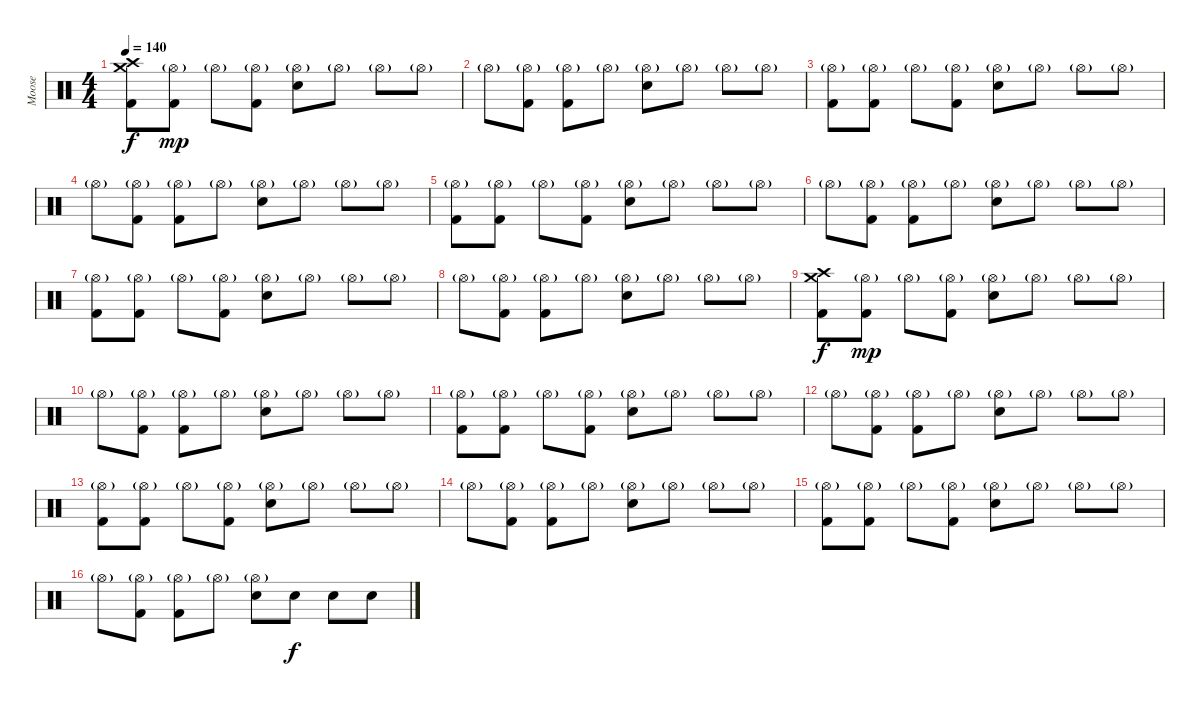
\track ("Moose" "Moose") {instrument percussion}
\staff {score}
\articulation defaults
\ts (4 4)
\tempo 140
\clef neutral
\ks c
("Crash high (hit)" "Crash medium (hit)" "Kick (hit) 2").8{dy f} ("Hi-Hat (open)"{g} "Kick (hit) 2").8{dy mp} "Hi-Hat (open)"{g}.8 ("Hi-Hat (open)"{g} "Kick (hit) 2").8 ("Hi-Hat (open)"{g} "Snare (hit) 2").8 "Hi-Hat (open)"{g}.8 "Hi-Hat (open)"{g}.8 "Hi-Hat (open)"{g}.8 |
"Hi-Hat (open)"{g}.8 ("Hi-Hat (open)"{g} "Kick (hit) 2").8 ("Hi-Hat (open)"{g} "Kick (hit) 2").8 "Hi-Hat (open)"{g}.8 ("Hi-Hat (open)"{g} "Snare (hit) 2").8 "Hi-Hat (open)"{g}.8 "Hi-Hat (open)"{g}.8 "Hi-Hat (open)"{g}.8 |
("Hi-Hat (open)"{g} "Kick (hit) 2").8 ("Hi-Hat (open)"{g} "Kick (hit) 2").8 "Hi-Hat (open)"{g}.8 ("Hi-Hat (open)"{g} "Kick (hit) 2").8 ("Hi-Hat (open)"{g} "Snare (hit) 2").8 "Hi-Hat (open)"{g}.8 "Hi-Hat (open)"{g}.8 "Hi-Hat (open)"{g}.8 |
"Hi-Hat (open)"{g}.8 ("Hi-Hat (open)"{g} "Kick (hit) 2").8 ("Hi-Hat (open)"{g} "Kick (hit) 2").8 "Hi-Hat (open)"{g}.8 ("Hi-Hat (open)"{g} "Snare (hit) 2").8 "Hi-Hat (open)"{g}.8 "Hi-Hat (open)"{g}.8 "Hi-Hat (open)"{g}.8 |
("Hi-Hat (open)"{g} "Kick (hit) 2").8 ("Hi-Hat (open)"{g} "Kick (hit) 2").8 "Hi-Hat (open)"{g}.8 ("Hi-Hat (open)"{g} "Kick (hit) 2").8 ("Hi-Hat (open)"{g} "Snare (hit) 2").8 "Hi-Hat (open)"{g}.8 "Hi-Hat (open)"{g}.8 "Hi-Hat (open)"{g}.8 |
"Hi-Hat (open)"{g}.8 ("Hi-Hat (open)"{g} "Kick (hit) 2").8 ("Hi-Hat (open)"{g} "Kick (hit) 2").8 "Hi-Hat (open)"{g}.8 ("Hi-Hat (open)"{g} "Snare (hit) 2").8 "Hi-Hat (open)"{g}.8 "Hi-Hat (open)"{g}.8 "Hi-Hat (open)"{g}.8 |
("Hi-Hat (open)"{g} "Kick (hit) 2").8 ("Hi-Hat (open)"{g} "Kick (hit) 2").8 "Hi-Hat (open)"{g}.8 ("Hi-Hat (open)"{g} "Kick (hit) 2").8 ("Hi-Hat (open)"{g} "Snare (hit) 2").8 "Hi-Hat (open)"{g}.8 "Hi-Hat (open)"{g}.8 "Hi-Hat (open)"{g}.8 |
"Hi-Hat (open)"{g}.8 ("Hi-Hat (open)"{g} "Kick (hit) 2").8 ("Hi-Hat (open)"{g} "Kick (hit) 2").8 "Hi-Hat (open)"{g}.8 ("Hi-Hat (open)"{g} "Snare (hit) 2").8 "Hi-Hat (open)"{g}.8 "Hi-Hat (open)"{g}.8 "Hi-Hat (open)"{g}.8 |
("Crash high (hit)" "Crash medium (hit)" "Kick (hit) 2").8{dy f} ("Hi-Hat (open)"{g} "Kick (hit) 2").8{dy mp} "Hi-Hat (open)"{g}.8 ("Hi-Hat (open)"{g} "Kick (hit) 2").8 ("Hi-Hat (open)"{g} "Snare (hit) 2").8 "Hi-Hat (open)"{g}.8 "Hi-Hat (open)"{g}.8 "Hi-Hat (open)"{g}.8 |
"Hi-Hat (open)"{g}.8 ("Hi-Hat (open)"{g} "Kick (hit) 2").8 ("Hi-Hat (open)"{g} "Kick (hit) 2").8 "Hi-Hat (open)"{g}.8 ("Hi-Hat (open)"{g} "Snare (hit) 2").8 "Hi-Hat (open)"{g}.8 "Hi-Hat (open)"{g}.8 "Hi-Hat (open)"{g}.8 |
("Hi-Hat (open)"{g} "Kick (hit) 2").8 ("Hi-Hat (open)"{g} "Kick (hit) 2").8 "Hi-Hat (open)"{g}.8 ("Hi-Hat (open)"{g} "Kick (hit) 2").8 ("Hi-Hat (open)"{g} "Snare (hit) 2").8 "Hi-Hat (open)"{g}.8 "Hi-Hat (open)"{g}.8 "Hi-Hat (open)"{g}.8 |
"Hi-Hat (open)"{g}.8 ("Hi-Hat (open)"{g} "Kick (hit) 2").8 ("Hi-Hat (open)"{g} "Kick (hit) 2").8 "Hi-Hat (open)"{g}.8 ("Hi-Hat (open)"{g} "Snare (hit) 2").8 "Hi-Hat (open)"{g}.8 "Hi-Hat (open)"{g}.8 "Hi-Hat (open)"{g}.8 |
("Hi-Hat (open)"{g} "Kick (hit) 2").8 ("Hi-Hat (open)"{g} "Kick (hit) 2").8 "Hi-Hat (open)"{g}.8 ("Hi-Hat (open)"{g} "Kick (hit) 2").8 ("Hi-Hat (open)"{g} "Snare (hit) 2").8 "Hi-Hat (open)"{g}.8 "Hi-Hat (open)"{g}.8 "Hi-Hat (open)"{g}.8 |
"Hi-Hat (open)"{g}.8 ("Hi-Hat (open)"{g} "Kick (hit) 2").8 ("Hi-Hat (open)"{g} "Kick (hit) 2").8 "Hi-Hat (open)"{g}.8 ("Hi-Hat (open)"{g} "Snare (hit) 2").8 "Hi-Hat (open)"{g}.8 "Hi-Hat (open)"{g}.8 "Hi-Hat (open)"{g}.8 |
("Hi-Hat (open)"{g} "Kick (hit) 2").8 ("Hi-Hat (open)"{g} "Kick (hit) 2").8 "Hi-Hat (open)"{g}.8 ("Hi-Hat (open)"{g} "Kick (hit) 2").8 ("Hi-Hat (open)"{g} "Snare (hit) 2").8 "Hi-Hat (open)"{g}.8 "Hi-Hat (open)"{g}.8 "Hi-Hat (open)"{g}.8 |
"Hi-Hat (open)"{g}.8 ("Hi-Hat (open)"{g} "Kick (hit) 2").8 ("Hi-Hat (open)"{g} "Kick (hit) 2").8 "Hi-Hat (open)"{g}.8 ("Hi-Hat (open)"{g} "Snare (hit) 2").8 "Snare (hit) 2".8{dy f} "Snare (hit) 2".8 "Snare (hit) 2".8
